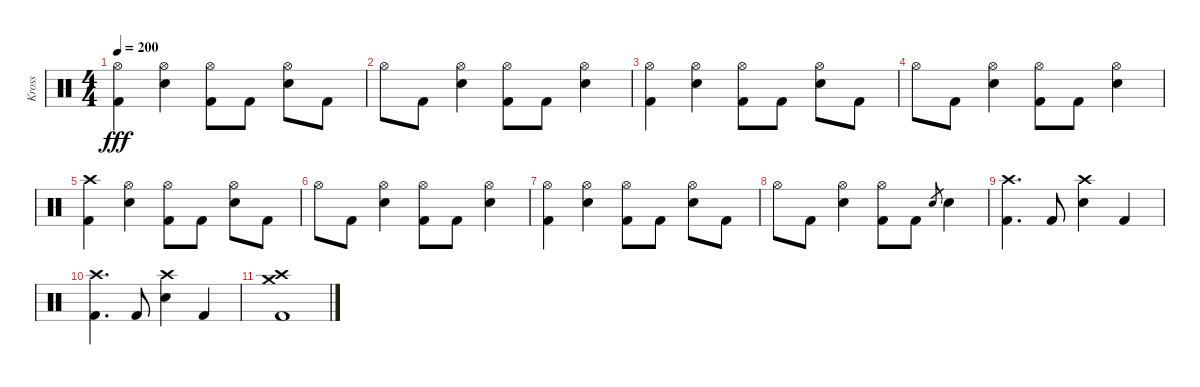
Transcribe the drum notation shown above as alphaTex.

\track ("Kross" "Kross") {instrument percussion}
\staff {score}
\articulation defaults
\ts (4 4)
\tempo 200
\clef neutral
\ks c
("Hi-Hat (open)" "Kick (hit) 2").4{dy fff} ("Hi-Hat (open)" "Electric Snare (hit)").4 ("Hi-Hat (open)" "Kick (hit) 2").8 "Kick (hit) 2".8 ("Hi-Hat (open)" "Electric Snare (hit)").8 "Kick (hit) 2".8 |
"Hi-Hat (open)".8 "Kick (hit) 2".8 ("Hi-Hat (open)" "Electric Snare (hit)").4 ("Hi-Hat (open)" "Kick (hit) 2").8 "Kick (hit) 2".8 ("Hi-Hat (open)" "Electric Snare (hit)").4 |
("Hi-Hat (open)" "Kick (hit) 2").4 ("Hi-Hat (open)" "Electric Snare (hit)").4 ("Hi-Hat (open)" "Kick (hit) 2").8 "Kick (hit) 2".8 ("Hi-Hat (open)" "Electric Snare (hit)").8 "Kick (hit) 2".8 |
"Hi-Hat (open)".8 "Kick (hit) 2".8 ("Hi-Hat (open)" "Electric Snare (hit)").4 ("Hi-Hat (open)" "Kick (hit) 2").8 "Kick (hit) 2".8 ("Hi-Hat (open)" "Electric Snare (hit)").4 |
("Crash high (hit)" "Kick (hit) 2").4 ("Hi-Hat (open)" "Electric Snare (hit)").4 ("Hi-Hat (open)" "Kick (hit) 2").8 "Kick (hit) 2".8 ("Hi-Hat (open)" "Electric Snare (hit)").8 "Kick (hit) 2".8 |
"Hi-Hat (open)".8 "Kick (hit) 2".8 ("Hi-Hat (open)" "Electric Snare (hit)").4 ("Hi-Hat (open)" "Kick (hit) 2").8 "Kick (hit) 2".8 ("Hi-Hat (open)" "Electric Snare (hit)").4 |
("Hi-Hat (open)" "Kick (hit) 2").4 ("Hi-Hat (open)" "Electric Snare (hit)").4 ("Hi-Hat (open)" "Kick (hit) 2").8 "Kick (hit) 2".8 ("Hi-Hat (open)" "Electric Snare (hit)").8 "Kick (hit) 2".8 |
"Hi-Hat (open)".8 "Kick (hit) 2".8 ("Hi-Hat (open)" "Electric Snare (hit)").4 ("Hi-Hat (open)" "Kick (hit) 2").8 "Kick (hit) 2".8 "Electric Snare (hit)".8{gr} "Electric Snare (hit)".4 |
("Crash high (hit)" "Kick (hit) 2").4{d} "Kick (hit) 2".8 ("Crash high (hit)" "Electric Snare (hit)").4 "Kick (hit) 2".4 |
("Crash high (hit)" "Kick (hit) 2").4{d} "Kick (hit) 2".8 ("Crash high (hit)" "Electric Snare (hit)").4 "Kick (hit) 2".4 |
("Crash high (hit)" "Crash medium (hit)" "Kick (hit) 2").1
